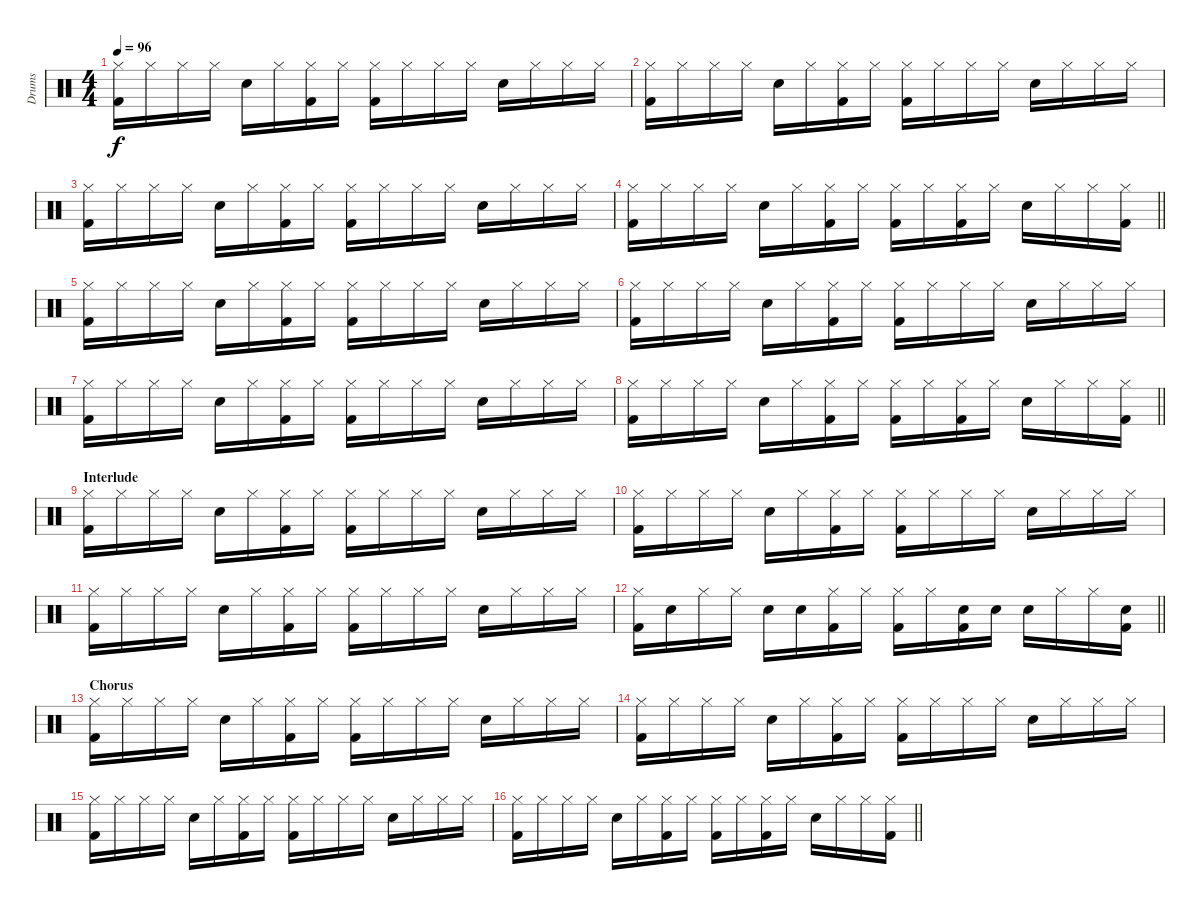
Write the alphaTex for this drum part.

\track ("Drums" "Drums") {instrument percussion}
\staff {score}
\articulation defaults
\ts (4 4)
\tempo 96
\clef neutral
\ks c
("Hi-Hat (closed)" "Kick (hit) 2").16{dy f} "Hi-Hat (closed)".16 "Hi-Hat (closed)".16 "Hi-Hat (closed)".16 "Snare (hit) 2".16 "Hi-Hat (closed)".16 ("Hi-Hat (closed)" "Kick (hit) 2").16 "Hi-Hat (closed)".16 ("Hi-Hat (closed)" "Kick (hit) 2").16 "Hi-Hat (closed)".16 "Hi-Hat (closed)".16 "Hi-Hat (closed)".16 "Snare (hit) 2".16 "Hi-Hat (closed)".16 "Hi-Hat (closed)".16 "Hi-Hat (closed)".16 |
("Hi-Hat (closed)" "Kick (hit) 2").16 "Hi-Hat (closed)".16 "Hi-Hat (closed)".16 "Hi-Hat (closed)".16 "Snare (hit) 2".16 "Hi-Hat (closed)".16 ("Hi-Hat (closed)" "Kick (hit) 2").16 "Hi-Hat (closed)".16 ("Hi-Hat (closed)" "Kick (hit) 2").16 "Hi-Hat (closed)".16 "Hi-Hat (closed)".16 "Hi-Hat (closed)".16 "Snare (hit) 2".16 "Hi-Hat (closed)".16 "Hi-Hat (closed)".16 "Hi-Hat (closed)".16 |
("Hi-Hat (closed)" "Kick (hit) 2").16 "Hi-Hat (closed)".16 "Hi-Hat (closed)".16 "Hi-Hat (closed)".16 "Snare (hit) 2".16 "Hi-Hat (closed)".16 ("Hi-Hat (closed)" "Kick (hit) 2").16 "Hi-Hat (closed)".16 ("Hi-Hat (closed)" "Kick (hit) 2").16 "Hi-Hat (closed)".16 "Hi-Hat (closed)".16 "Hi-Hat (closed)".16 "Snare (hit) 2".16 "Hi-Hat (closed)".16 "Hi-Hat (closed)".16 "Hi-Hat (closed)".16 |
\barLineRight lightlight
("Hi-Hat (closed)" "Kick (hit) 2").16 "Hi-Hat (closed)".16 "Hi-Hat (closed)".16 "Hi-Hat (closed)".16 "Snare (hit) 2".16 "Hi-Hat (closed)".16 ("Hi-Hat (closed)" "Kick (hit) 2").16 "Hi-Hat (closed)".16 ("Hi-Hat (closed)" "Kick (hit) 2").16 "Hi-Hat (closed)".16 ("Hi-Hat (closed)" "Kick (hit) 2").16 "Hi-Hat (closed)".16 "Snare (hit) 2".16 "Hi-Hat (closed)".16 "Hi-Hat (closed)".16 ("Hi-Hat (closed)" "Kick (hit) 2").16 |
("Hi-Hat (closed)" "Kick (hit) 2").16 "Hi-Hat (closed)".16 "Hi-Hat (closed)".16 "Hi-Hat (closed)".16 "Snare (hit) 2".16 "Hi-Hat (closed)".16 ("Hi-Hat (closed)" "Kick (hit) 2").16 "Hi-Hat (closed)".16 ("Hi-Hat (closed)" "Kick (hit) 2").16 "Hi-Hat (closed)".16 "Hi-Hat (closed)".16 "Hi-Hat (closed)".16 "Snare (hit) 2".16 "Hi-Hat (closed)".16 "Hi-Hat (closed)".16 "Hi-Hat (closed)".16 |
("Hi-Hat (closed)" "Kick (hit) 2").16 "Hi-Hat (closed)".16 "Hi-Hat (closed)".16 "Hi-Hat (closed)".16 "Snare (hit) 2".16 "Hi-Hat (closed)".16 ("Hi-Hat (closed)" "Kick (hit) 2").16 "Hi-Hat (closed)".16 ("Hi-Hat (closed)" "Kick (hit) 2").16 "Hi-Hat (closed)".16 "Hi-Hat (closed)".16 "Hi-Hat (closed)".16 "Snare (hit) 2".16 "Hi-Hat (closed)".16 "Hi-Hat (closed)".16 "Hi-Hat (closed)".16 |
("Hi-Hat (closed)" "Kick (hit) 2").16 "Hi-Hat (closed)".16 "Hi-Hat (closed)".16 "Hi-Hat (closed)".16 "Snare (hit) 2".16 "Hi-Hat (closed)".16 ("Hi-Hat (closed)" "Kick (hit) 2").16 "Hi-Hat (closed)".16 ("Hi-Hat (closed)" "Kick (hit) 2").16 "Hi-Hat (closed)".16 "Hi-Hat (closed)".16 "Hi-Hat (closed)".16 "Snare (hit) 2".16 "Hi-Hat (closed)".16 "Hi-Hat (closed)".16 "Hi-Hat (closed)".16 |
\barLineRight lightlight
("Hi-Hat (closed)" "Kick (hit) 2").16 "Hi-Hat (closed)".16 "Hi-Hat (closed)".16 "Hi-Hat (closed)".16 "Snare (hit) 2".16 "Hi-Hat (closed)".16 ("Hi-Hat (closed)" "Kick (hit) 2").16 "Hi-Hat (closed)".16 ("Hi-Hat (closed)" "Kick (hit) 2").16 "Hi-Hat (closed)".16 ("Hi-Hat (closed)" "Kick (hit) 2").16 "Hi-Hat (closed)".16 "Snare (hit) 2".16 "Hi-Hat (closed)".16 "Hi-Hat (closed)".16 ("Hi-Hat (closed)" "Kick (hit) 2").16 |
\section ("" "Interlude")
("Hi-Hat (closed)" "Kick (hit) 2").16 "Hi-Hat (closed)".16 "Hi-Hat (closed)".16 "Hi-Hat (closed)".16 "Snare (hit) 2".16 "Hi-Hat (closed)".16 ("Hi-Hat (closed)" "Kick (hit) 2").16 "Hi-Hat (closed)".16 ("Hi-Hat (closed)" "Kick (hit) 2").16 "Hi-Hat (closed)".16 "Hi-Hat (closed)".16 "Hi-Hat (closed)".16 "Snare (hit) 2".16 "Hi-Hat (closed)".16 "Hi-Hat (closed)".16 "Hi-Hat (closed)".16 |
("Hi-Hat (closed)" "Kick (hit) 2").16 "Hi-Hat (closed)".16 "Hi-Hat (closed)".16 "Hi-Hat (closed)".16 "Snare (hit) 2".16 "Hi-Hat (closed)".16 ("Hi-Hat (closed)" "Kick (hit) 2").16 "Hi-Hat (closed)".16 ("Hi-Hat (closed)" "Kick (hit) 2").16 "Hi-Hat (closed)".16 "Hi-Hat (closed)".16 "Hi-Hat (closed)".16 "Snare (hit) 2".16 "Hi-Hat (closed)".16 "Hi-Hat (closed)".16 "Hi-Hat (closed)".16 |
("Hi-Hat (closed)" "Kick (hit) 2").16 "Hi-Hat (closed)".16 "Hi-Hat (closed)".16 "Hi-Hat (closed)".16 "Snare (hit) 2".16 "Hi-Hat (closed)".16 ("Hi-Hat (closed)" "Kick (hit) 2").16 "Hi-Hat (closed)".16 ("Hi-Hat (closed)" "Kick (hit) 2").16 "Hi-Hat (closed)".16 "Hi-Hat (closed)".16 "Hi-Hat (closed)".16 "Snare (hit) 2".16 "Hi-Hat (closed)".16 "Hi-Hat (closed)".16 "Hi-Hat (closed)".16 |
\barLineRight lightlight
("Hi-Hat (closed)" "Kick (hit) 2").16 "Snare (hit) 2".16 "Hi-Hat (closed)".16 "Hi-Hat (closed)".16 "Snare (hit) 2".16 "Snare (hit) 2".16 ("Hi-Hat (closed)" "Kick (hit) 2").16 "Hi-Hat (closed)".16 ("Hi-Hat (closed)" "Kick (hit) 2").16 "Hi-Hat (closed)".16 ("Snare (hit) 2" "Kick (hit) 2").16 "Snare (hit) 2".16 "Snare (hit) 2".16 "Hi-Hat (closed)".16 "Hi-Hat (closed)".16 ("Snare (hit) 2" "Kick (hit) 2").16 |
\section ("" "Chorus")
("Hi-Hat (closed)" "Kick (hit) 2").16 "Hi-Hat (closed)".16 "Hi-Hat (closed)".16 "Hi-Hat (closed)".16 "Snare (hit) 2".16 "Hi-Hat (closed)".16 ("Hi-Hat (closed)" "Kick (hit) 2").16 "Hi-Hat (closed)".16 ("Hi-Hat (closed)" "Kick (hit) 2").16 "Hi-Hat (closed)".16 "Hi-Hat (closed)".16 "Hi-Hat (closed)".16 "Snare (hit) 2".16 "Hi-Hat (closed)".16 "Hi-Hat (closed)".16 "Hi-Hat (closed)".16 |
("Hi-Hat (closed)" "Kick (hit) 2").16 "Hi-Hat (closed)".16 "Hi-Hat (closed)".16 "Hi-Hat (closed)".16 "Snare (hit) 2".16 "Hi-Hat (closed)".16 ("Hi-Hat (closed)" "Kick (hit) 2").16 "Hi-Hat (closed)".16 ("Hi-Hat (closed)" "Kick (hit) 2").16 "Hi-Hat (closed)".16 "Hi-Hat (closed)".16 "Hi-Hat (closed)".16 "Snare (hit) 2".16 "Hi-Hat (closed)".16 "Hi-Hat (closed)".16 "Hi-Hat (closed)".16 |
("Hi-Hat (closed)" "Kick (hit) 2").16 "Hi-Hat (closed)".16 "Hi-Hat (closed)".16 "Hi-Hat (closed)".16 "Snare (hit) 2".16 "Hi-Hat (closed)".16 ("Hi-Hat (closed)" "Kick (hit) 2").16 "Hi-Hat (closed)".16 ("Hi-Hat (closed)" "Kick (hit) 2").16 "Hi-Hat (closed)".16 "Hi-Hat (closed)".16 "Hi-Hat (closed)".16 "Snare (hit) 2".16 "Hi-Hat (closed)".16 "Hi-Hat (closed)".16 "Hi-Hat (closed)".16 |
\barLineRight lightlight
("Hi-Hat (closed)" "Kick (hit) 2").16 "Hi-Hat (closed)".16 "Hi-Hat (closed)".16 "Hi-Hat (closed)".16 "Snare (hit) 2".16 "Hi-Hat (closed)".16 ("Hi-Hat (closed)" "Kick (hit) 2").16 "Hi-Hat (closed)".16 ("Hi-Hat (closed)" "Kick (hit) 2").16 "Hi-Hat (closed)".16 ("Hi-Hat (closed)" "Kick (hit) 2").16 "Hi-Hat (closed)".16 "Snare (hit) 2".16 "Hi-Hat (closed)".16 "Hi-Hat (closed)".16 ("Hi-Hat (closed)" "Kick (hit) 2").16
